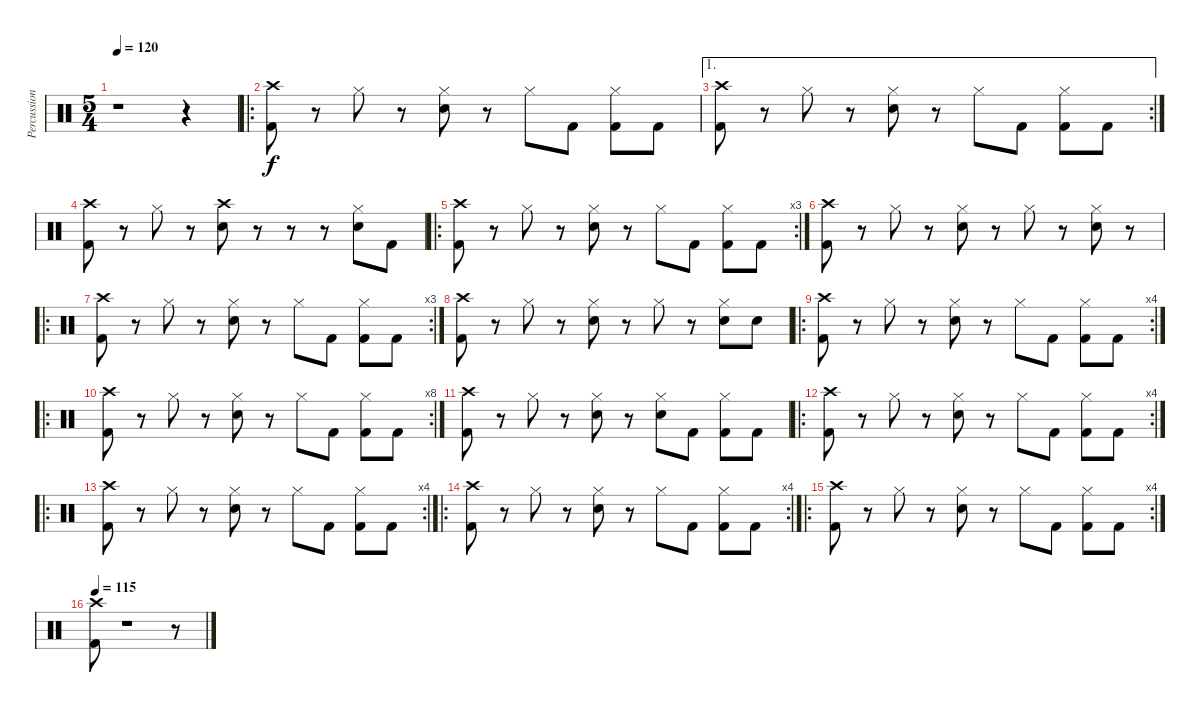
\track ("Percussions" "Percussion") {instrument percussion}
\staff {score}
\articulation defaults
\ts (5 4)
\tempo 120
\clef neutral
\ks c
r.1{dy f} r.4 |
\ro
("Crash high (hit)" "Kick (hit) 2").8 r.8 "Hi-Hat (closed)".8 r.8 ("Hi-Hat (closed)" "Snare (hit) 2").8 r.8 "Hi-Hat (closed)".8 "Kick (hit) 2".8 ("Hi-Hat (closed)" "Kick (hit) 2").8 "Kick (hit) 2".8 |
\ae 1
\rc 2
("Crash high (hit)" "Kick (hit) 2").8 r.8 "Hi-Hat (closed)".8 r.8 ("Hi-Hat (closed)" "Snare (hit) 2").8 r.8 "Hi-Hat (closed)".8 "Kick (hit) 2".8 ("Hi-Hat (closed)" "Kick (hit) 2").8 "Kick (hit) 2".8 |
("Crash high (hit)" "Kick (hit) 2").8 r.8 "Hi-Hat (closed)".8 r.8 ("Crash high (hit)" "Snare (hit) 2").8 r.8 r.8 r.8 ("Hi-Hat (closed)" "Snare (hit) 2").8 "Kick (hit) 2".8 |
\ro
\rc 3
("Crash high (hit)" "Kick (hit) 2").8 r.8 "Hi-Hat (closed)".8 r.8 ("Hi-Hat (closed)" "Snare (hit) 2").8 r.8 "Hi-Hat (closed)".8 "Kick (hit) 2".8 ("Hi-Hat (closed)" "Kick (hit) 2").8 "Kick (hit) 2".8 |
("Crash high (hit)" "Kick (hit) 2").8 r.8 "Hi-Hat (closed)".8 r.8 ("Hi-Hat (closed)" "Snare (hit) 2").8 r.8 "Hi-Hat (closed)".8 r.8 ("Hi-Hat (closed)" "Snare (hit) 2").8 r.8 |
\ro
\rc 3
("Crash high (hit)" "Kick (hit) 2").8 r.8 "Hi-Hat (closed)".8 r.8 ("Hi-Hat (closed)" "Snare (hit) 2").8 r.8 "Hi-Hat (closed)".8 "Kick (hit) 2".8 ("Hi-Hat (closed)" "Kick (hit) 2").8 "Kick (hit) 2".8 |
("Crash high (hit)" "Kick (hit) 2").8 r.8 "Hi-Hat (closed)".8 r.8 ("Hi-Hat (closed)" "Snare (hit) 2").8 r.8 "Hi-Hat (closed)".8 r.8 ("Hi-Hat (closed)" "Snare (hit) 2").8 "Snare (hit) 2".8 |
\ro
\rc 4
("Crash high (hit)" "Kick (hit) 2").8 r.8 "Hi-Hat (closed)".8 r.8 ("Hi-Hat (closed)" "Snare (hit) 2").8 r.8 "Hi-Hat (closed)".8 "Kick (hit) 2".8 ("Hi-Hat (closed)" "Kick (hit) 2").8 "Kick (hit) 2".8 |
\ro
\rc 8
("Crash high (hit)" "Kick (hit) 2").8 r.8 "Hi-Hat (closed)".8 r.8 ("Hi-Hat (closed)" "Snare (hit) 2").8 r.8 "Hi-Hat (closed)".8 "Kick (hit) 2".8 ("Hi-Hat (closed)" "Kick (hit) 2").8 "Kick (hit) 2".8 |
("Crash high (hit)" "Kick (hit) 2").8 r.8 "Hi-Hat (closed)".8 r.8 ("Hi-Hat (closed)" "Snare (hit) 2").8 r.8 ("Hi-Hat (closed)" "Snare (hit) 2").8 "Kick (hit) 2".8 ("Hi-Hat (closed)" "Kick (hit) 2").8 "Kick (hit) 2".8 |
\ro
\rc 4
("Crash high (hit)" "Kick (hit) 2").8 r.8 "Hi-Hat (closed)".8 r.8 ("Hi-Hat (closed)" "Snare (hit) 2").8 r.8 "Hi-Hat (closed)".8 "Kick (hit) 2".8 ("Hi-Hat (closed)" "Kick (hit) 2").8 "Kick (hit) 2".8 |
\ro
\rc 4
("Crash high (hit)" "Kick (hit) 2").8 r.8 "Hi-Hat (closed)".8 r.8 ("Hi-Hat (closed)" "Snare (hit) 2").8 r.8 "Hi-Hat (closed)".8 "Kick (hit) 2".8 ("Hi-Hat (closed)" "Kick (hit) 2").8 "Kick (hit) 2".8 |
\ro
\rc 4
("Crash high (hit)" "Kick (hit) 2").8 r.8 "Hi-Hat (closed)".8 r.8 ("Hi-Hat (closed)" "Snare (hit) 2").8 r.8 "Hi-Hat (closed)".8 "Kick (hit) 2".8 ("Hi-Hat (closed)" "Kick (hit) 2").8 "Kick (hit) 2".8 |
\ro
\rc 4
("Crash high (hit)" "Kick (hit) 2").8 r.8 "Hi-Hat (closed)".8 r.8 ("Hi-Hat (closed)" "Snare (hit) 2").8 r.8 "Hi-Hat (closed)".8 "Kick (hit) 2".8 ("Hi-Hat (closed)" "Kick (hit) 2").8 "Kick (hit) 2".8 |
\tempo 115
("Crash high (hit)" "Kick (hit) 2").8 r.1 r.8
